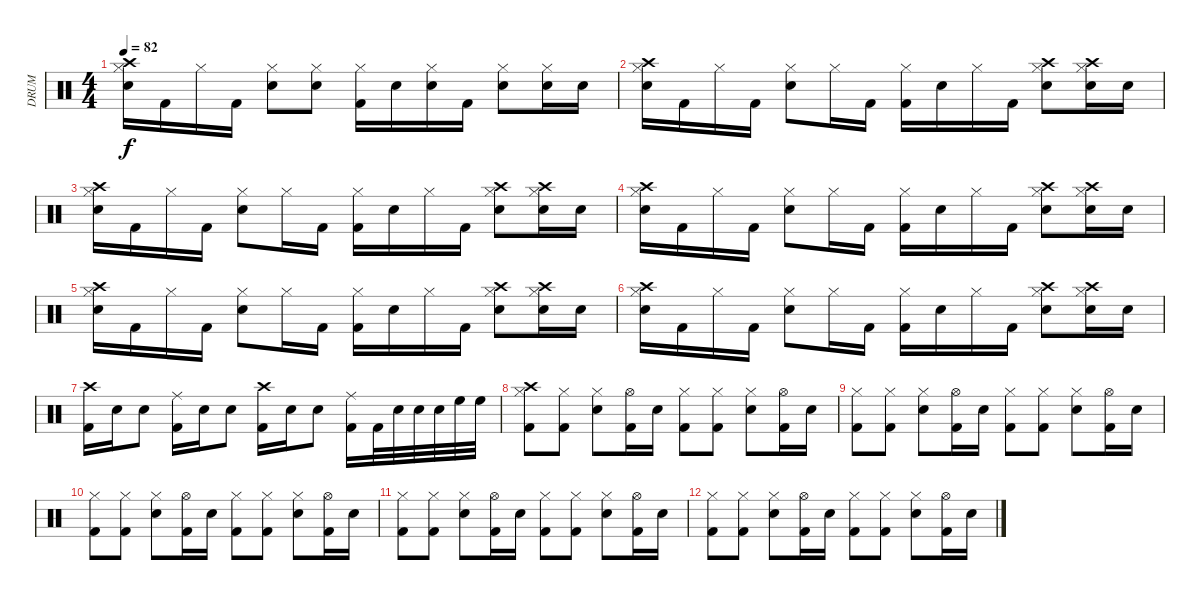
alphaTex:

\track ("DRUM" "DRUM") {instrument percussion}
\staff {score}
\articulation defaults
\ts (4 4)
\tempo 82
\clef neutral
\ks c
("Crash high (hit)" "Hi-Hat (closed)" "Electric Snare (hit)").16{dy f} "Kick (hit) 2".16 "Hi-Hat (closed)".16 "Kick (hit) 2".16 ("Hi-Hat (closed)" "Electric Snare (hit)").8 ("Hi-Hat (closed)" "Electric Snare (hit)").8 ("Hi-Hat (closed)" "Kick (hit) 2").16 "Electric Snare (hit)".16 ("Hi-Hat (closed)" "Electric Snare (hit)").16 "Kick (hit) 2".16 ("Hi-Hat (closed)" "Electric Snare (hit)").8 ("Hi-Hat (closed)" "Electric Snare (hit)").16 "Electric Snare (hit)".16 |
("Crash high (hit)" "Hi-Hat (closed)" "Electric Snare (hit)").16 "Kick (hit) 2".16 "Hi-Hat (closed)".16 "Kick (hit) 2".16 ("Hi-Hat (closed)" "Electric Snare (hit)").8 "Hi-Hat (closed)".16 "Kick (hit) 2".16 ("Hi-Hat (closed)" "Kick (hit) 2").16 "Electric Snare (hit)".16 "Hi-Hat (closed)".16 "Kick (hit) 2".16 ("Crash high (hit)" "Hi-Hat (closed)" "Electric Snare (hit)").8 ("Crash high (hit)" "Hi-Hat (closed)" "Electric Snare (hit)").16 "Electric Snare (hit)".16 |
("Crash high (hit)" "Hi-Hat (closed)" "Electric Snare (hit)").16 "Kick (hit) 2".16 "Hi-Hat (closed)".16 "Kick (hit) 2".16 ("Hi-Hat (closed)" "Electric Snare (hit)").8 "Hi-Hat (closed)".16 "Kick (hit) 2".16 ("Hi-Hat (closed)" "Kick (hit) 2").16 "Electric Snare (hit)".16 "Hi-Hat (closed)".16 "Kick (hit) 2".16 ("Crash high (hit)" "Hi-Hat (closed)" "Electric Snare (hit)").8 ("Crash high (hit)" "Hi-Hat (closed)" "Electric Snare (hit)").16 "Electric Snare (hit)".16 |
("Crash high (hit)" "Hi-Hat (closed)" "Electric Snare (hit)").16 "Kick (hit) 2".16 "Hi-Hat (closed)".16 "Kick (hit) 2".16 ("Hi-Hat (closed)" "Electric Snare (hit)").8 "Hi-Hat (closed)".16 "Kick (hit) 2".16 ("Hi-Hat (closed)" "Kick (hit) 2").16 "Electric Snare (hit)".16 "Hi-Hat (closed)".16 "Kick (hit) 2".16 ("Crash high (hit)" "Hi-Hat (closed)" "Electric Snare (hit)").8 ("Crash high (hit)" "Hi-Hat (closed)" "Electric Snare (hit)").16 "Electric Snare (hit)".16 |
("Crash high (hit)" "Hi-Hat (closed)" "Electric Snare (hit)").16 "Kick (hit) 2".16 "Hi-Hat (closed)".16 "Kick (hit) 2".16 ("Hi-Hat (closed)" "Electric Snare (hit)").8 "Hi-Hat (closed)".16 "Kick (hit) 2".16 ("Hi-Hat (closed)" "Kick (hit) 2").16 "Electric Snare (hit)".16 "Hi-Hat (closed)".16 "Kick (hit) 2".16 ("Crash high (hit)" "Hi-Hat (closed)" "Electric Snare (hit)").8 ("Crash high (hit)" "Hi-Hat (closed)" "Electric Snare (hit)").16 "Electric Snare (hit)".16 |
("Crash high (hit)" "Hi-Hat (closed)" "Electric Snare (hit)").16 "Kick (hit) 2".16 "Hi-Hat (closed)".16 "Kick (hit) 2".16 ("Hi-Hat (closed)" "Electric Snare (hit)").8 "Hi-Hat (closed)".16 "Kick (hit) 2".16 ("Hi-Hat (closed)" "Kick (hit) 2").16 "Electric Snare (hit)".16 "Hi-Hat (closed)".16 "Kick (hit) 2".16 ("Crash high (hit)" "Hi-Hat (closed)" "Electric Snare (hit)").8 ("Crash high (hit)" "Hi-Hat (closed)" "Electric Snare (hit)").16 "Electric Snare (hit)".16 |
("Crash high (hit)" "Kick (hit) 2").16 "Electric Snare (hit)".16 "Electric Snare (hit)".8 ("Ride (middle)" "Kick (hit) 2").16 "Electric Snare (hit)".16 "Electric Snare (hit)".8 ("Crash high (hit)" "Kick (hit) 2").16 "Electric Snare (hit)".16 "Electric Snare (hit)".8 ("Ride (middle)" "Kick (hit) 2").16 "Kick (hit) 2".32 "Electric Snare (hit)".32 "Electric Snare (hit)".32 "Electric Snare (hit)".32 "High Floor Tom (hit)".32 "High Floor Tom (hit)".32 |
("Crash high (hit)" "Hi-Hat (closed)" "Kick (hit) 2").8 ("Hi-Hat (closed)" "Kick (hit) 2").8 ("Hi-Hat (closed)" "Electric Snare (hit)").8 ("Hi-Hat (open)" "Kick (hit) 2").16 "Electric Snare (hit)".16 ("Hi-Hat (closed)" "Kick (hit) 2").8 ("Hi-Hat (closed)" "Kick (hit) 2").8 ("Hi-Hat (closed)" "Electric Snare (hit)").8 ("Hi-Hat (open)" "Kick (hit) 2").16 "Electric Snare (hit)".16 |
("Hi-Hat (closed)" "Kick (hit) 2").8 ("Hi-Hat (closed)" "Kick (hit) 2").8 ("Hi-Hat (closed)" "Electric Snare (hit)").8 ("Hi-Hat (open)" "Kick (hit) 2").16 "Electric Snare (hit)".16 ("Hi-Hat (closed)" "Kick (hit) 2").8 ("Hi-Hat (closed)" "Kick (hit) 2").8 ("Hi-Hat (closed)" "Electric Snare (hit)").8 ("Hi-Hat (open)" "Kick (hit) 2").16 "Electric Snare (hit)".16 |
("Hi-Hat (closed)" "Kick (hit) 2").8 ("Hi-Hat (closed)" "Kick (hit) 2").8 ("Hi-Hat (closed)" "Electric Snare (hit)").8 ("Hi-Hat (open)" "Kick (hit) 2").16 "Electric Snare (hit)".16 ("Hi-Hat (closed)" "Kick (hit) 2").8 ("Hi-Hat (closed)" "Kick (hit) 2").8 ("Hi-Hat (closed)" "Electric Snare (hit)").8 ("Hi-Hat (open)" "Kick (hit) 2").16 "Electric Snare (hit)".16 |
("Hi-Hat (closed)" "Kick (hit) 2").8 ("Hi-Hat (closed)" "Kick (hit) 2").8 ("Hi-Hat (closed)" "Electric Snare (hit)").8 ("Hi-Hat (open)" "Kick (hit) 2").16 "Electric Snare (hit)".16 ("Hi-Hat (closed)" "Kick (hit) 2").8 ("Hi-Hat (closed)" "Kick (hit) 2").8 ("Hi-Hat (closed)" "Electric Snare (hit)").8 ("Hi-Hat (open)" "Kick (hit) 2").16 "Electric Snare (hit)".16 |
("Hi-Hat (closed)" "Kick (hit) 2").8 ("Hi-Hat (closed)" "Kick (hit) 2").8 ("Hi-Hat (closed)" "Electric Snare (hit)").8 ("Hi-Hat (open)" "Kick (hit) 2").16 "Electric Snare (hit)".16 ("Hi-Hat (closed)" "Kick (hit) 2").8 ("Hi-Hat (closed)" "Kick (hit) 2").8 ("Hi-Hat (closed)" "Electric Snare (hit)").8 ("Hi-Hat (open)" "Kick (hit) 2").16 "Electric Snare (hit)".16
